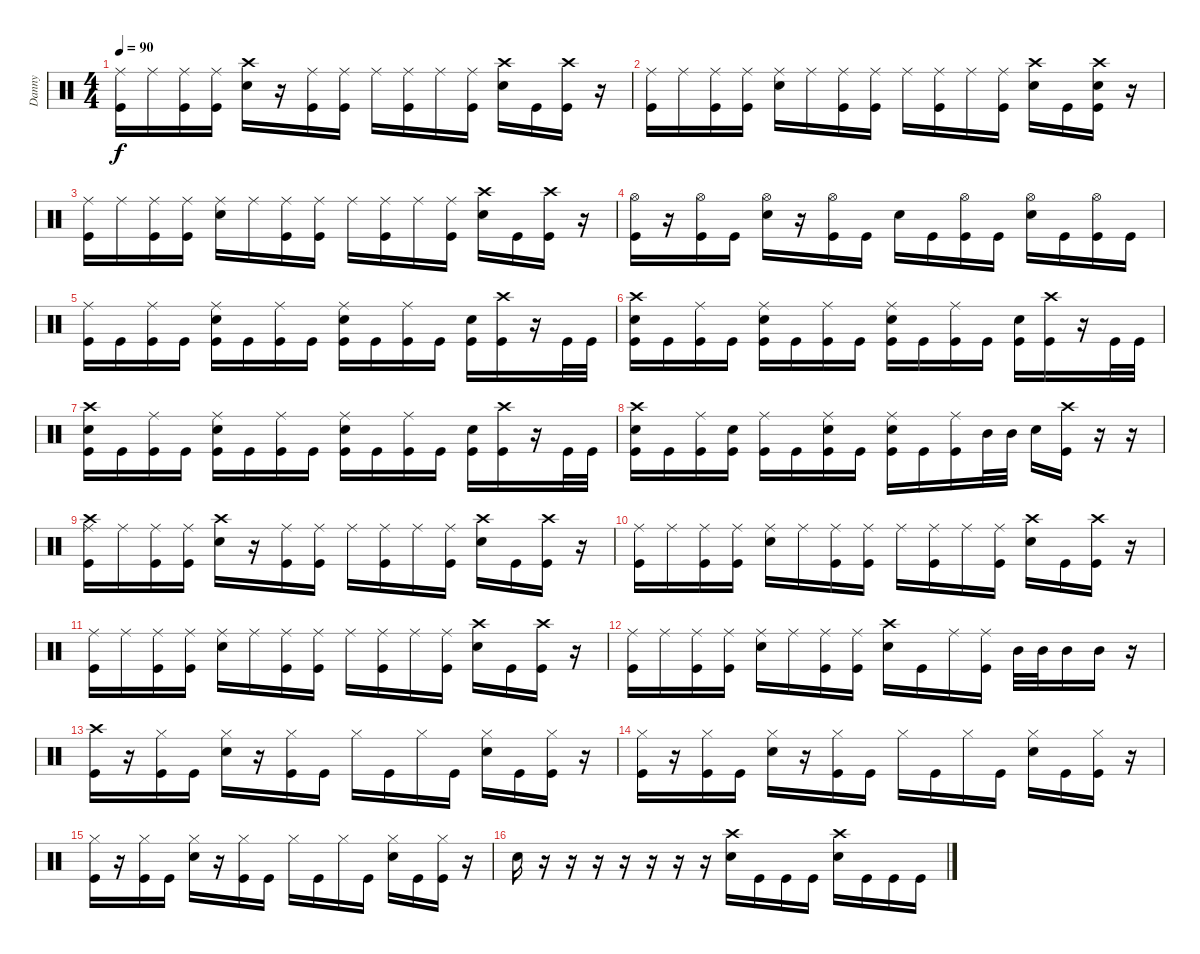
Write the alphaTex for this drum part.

\track ("Danny" "Danny") {instrument percussion}
\staff {score}
\articulation defaults
\ts (4 4)
\tempo 90
\clef neutral
\ks c
("Ride (middle)" "Kick (hit)").16{dy f} "Ride (middle)".16 ("Ride (middle)" "Kick (hit)").16 ("Ride (middle)" "Kick (hit)").16 ("Crash high (hit)" "Electric Snare (hit)").16 r.16 ("Ride (middle)" "Kick (hit)").16 ("Ride (middle)" "Kick (hit)").16 "Ride (middle)".16 ("Ride (middle)" "Kick (hit)").16 "Ride (middle)".16 ("Ride (middle)" "Kick (hit)").16 ("Crash high (hit)" "Electric Snare (hit)").16 "Kick (hit)".16 ("Crash high (hit)" "Kick (hit)").16 r.16 |
("Ride (middle)" "Kick (hit)").16 "Ride (middle)".16 ("Ride (middle)" "Kick (hit)").16 ("Ride (middle)" "Kick (hit)").16 ("Ride (middle)" "Electric Snare (hit)").16 "Ride (middle)".16 ("Ride (middle)" "Kick (hit)").16 ("Ride (middle)" "Kick (hit)").16 "Ride (middle)".16 ("Ride (middle)" "Kick (hit)").16 "Ride (middle)".16 ("Ride (middle)" "Kick (hit)").16 ("Crash high (hit)" "Electric Snare (hit)").16 "Kick (hit)".16 ("Crash high (hit)" "Electric Snare (hit)" "Kick (hit)").16 r.16 |
("Ride (middle)" "Kick (hit)").16 "Ride (middle)".16 ("Ride (middle)" "Kick (hit)").16 ("Ride (middle)" "Kick (hit)").16 ("Ride (middle)" "Electric Snare (hit)").16 "Ride (middle)".16 ("Ride (middle)" "Kick (hit)").16 ("Ride (middle)" "Kick (hit)").16 "Ride (middle)".16 ("Ride (middle)" "Kick (hit)").16 "Ride (middle)".16 ("Ride (middle)" "Kick (hit)").16 ("Crash high (hit)" "Electric Snare (hit)").16 "Kick (hit)".16 ("Crash high (hit)" "Kick (hit)").16 r.16 |
("Hi-Hat (open)" "Kick (hit)").16 r.16 ("Hi-Hat (open)" "Kick (hit)").16 "Kick (hit)".16 ("Hi-Hat (open)" "Electric Snare (hit)").16 r.16 ("Hi-Hat (open)" "Kick (hit)").16 "Kick (hit)".16 "Electric Snare (hit)".16 "Kick (hit)".16 ("Hi-Hat (open)" "Kick (hit)").16 "Kick (hit)".16 ("Hi-Hat (open)" "Electric Snare (hit)").16 "Kick (hit)".16 ("Hi-Hat (open)" "Kick (hit)").16 "Kick (hit)".16 |
("Ride (middle)" "Kick (hit)").16 "Kick (hit)".16 ("Ride (middle)" "Kick (hit)").16 "Kick (hit)".16 ("Ride (middle)" "Electric Snare (hit)" "Kick (hit)").16 "Kick (hit)".16 ("Ride (middle)" "Kick (hit)").16 "Kick (hit)".16 ("Ride (middle)" "Electric Snare (hit)" "Kick (hit)").16 "Kick (hit)".16 ("Ride (middle)" "Kick (hit)").16 "Kick (hit)".16 ("Electric Snare (hit)" "Kick (hit)").16 ("Crash high (hit)" "Kick (hit)").16 r.16 "Kick (hit)".32 "Kick (hit)".32 |
("Crash high (hit)" "Electric Snare (hit)" "Kick (hit)").16 "Kick (hit)".16 ("Ride (middle)" "Kick (hit)").16 "Kick (hit)".16 ("Ride (middle)" "Electric Snare (hit)" "Kick (hit)").16 "Kick (hit)".16 ("Ride (middle)" "Kick (hit)").16 "Kick (hit)".16 ("Ride (middle)" "Electric Snare (hit)" "Kick (hit)").16 "Kick (hit)".16 ("Ride (middle)" "Kick (hit)").16 "Kick (hit)".16 ("Electric Snare (hit)" "Kick (hit)").16 ("Crash high (hit)" "Kick (hit)").16 r.16 "Kick (hit)".32 "Kick (hit)".32 |
("Crash high (hit)" "Electric Snare (hit)" "Kick (hit)").16 "Kick (hit)".16 ("Ride (middle)" "Kick (hit)").16 "Kick (hit)".16 ("Ride (middle)" "Electric Snare (hit)" "Kick (hit)").16 "Kick (hit)".16 ("Ride (middle)" "Kick (hit)").16 "Kick (hit)".16 ("Ride (middle)" "Electric Snare (hit)" "Kick (hit)").16 "Kick (hit)".16 ("Ride (middle)" "Kick (hit)").16 "Kick (hit)".16 ("Electric Snare (hit)" "Kick (hit)").16 ("Crash high (hit)" "Kick (hit)").16 r.16 "Kick (hit)".32 "Kick (hit)".32 |
("Crash high (hit)" "Electric Snare (hit)" "Kick (hit)").16 "Kick (hit)".16 ("Ride (middle)" "Kick (hit)").16 ("Electric Snare (hit)" "Kick (hit)").16 ("Ride (middle)" "Kick (hit)").16 "Kick (hit)".16 ("Ride (middle)" "Electric Snare (hit)" "Kick (hit)").16 "Kick (hit)".16 ("Ride (middle)" "Electric Snare (hit)" "Kick (hit)").16 "Kick (hit)".16 ("Ride (middle)" "Kick (hit)").16 "Mid Tom (hit)".32 "Mid Tom (hit)".32 "Electric Snare (hit)".16 ("Crash high (hit)" "Kick (hit)").16 r.16 r.16 |
("Crash high (hit)" "Ride (middle)" "Kick (hit)").16 "Ride (middle)".16 ("Ride (middle)" "Kick (hit)").16 ("Ride (middle)" "Kick (hit)").16 ("Crash high (hit)" "Electric Snare (hit)").16 r.16 ("Ride (middle)" "Kick (hit)").16 ("Ride (middle)" "Kick (hit)").16 "Ride (middle)".16 ("Ride (middle)" "Kick (hit)").16 "Ride (middle)".16 ("Ride (middle)" "Kick (hit)").16 ("Crash high (hit)" "Electric Snare (hit)").16 "Kick (hit)".16 ("Crash high (hit)" "Kick (hit)").16 r.16 |
("Ride (middle)" "Kick (hit)").16 "Ride (middle)".16 ("Ride (middle)" "Kick (hit)").16 ("Ride (middle)" "Kick (hit)").16 ("Ride (middle)" "Electric Snare (hit)").16 "Ride (middle)".16 ("Ride (middle)" "Kick (hit)").16 ("Ride (middle)" "Kick (hit)").16 "Ride (middle)".16 ("Ride (middle)" "Kick (hit)").16 "Ride (middle)".16 ("Ride (middle)" "Kick (hit)").16 ("Crash high (hit)" "Electric Snare (hit)").16 "Kick (hit)".16 ("Crash high (hit)" "Kick (hit)").16 r.16 |
("Ride (middle)" "Kick (hit)").16 "Ride (middle)".16 ("Ride (middle)" "Kick (hit)").16 ("Ride (middle)" "Kick (hit)").16 ("Ride (middle)" "Electric Snare (hit)").16 "Ride (middle)".16 ("Ride (middle)" "Kick (hit)").16 ("Ride (middle)" "Kick (hit)").16 "Ride (middle)".16 ("Ride (middle)" "Kick (hit)").16 "Ride (middle)".16 ("Ride (middle)" "Kick (hit)").16 ("Crash high (hit)" "Electric Snare (hit)").16 "Kick (hit)".16 ("Crash high (hit)" "Kick (hit)").16 r.16 |
("Ride (middle)" "Kick (hit)").16 "Ride (middle)".16 ("Ride (middle)" "Kick (hit)").16 ("Ride (middle)" "Kick (hit)").16 ("Ride (middle)" "Electric Snare (hit)").16 "Ride (middle)".16 ("Ride (middle)" "Kick (hit)").16 ("Ride (middle)" "Kick (hit)").16 ("Crash high (hit)" "Electric Snare (hit)").16 "Kick (hit)".16 "Ride (middle)".16 ("Ride (middle)" "Kick (hit)").16 "Mid Tom (hit)".32 "Mid Tom (hit)".32 "Mid Tom (hit)".16 "Mid Tom (hit)".16 r.16 |
("Crash high (hit)" "Kick (hit)").16 r.16 ("Hi-Hat (closed)" "Kick (hit)").16 "Kick (hit)".16 ("Hi-Hat (closed)" "Electric Snare (hit)").16 r.16 ("Hi-Hat (closed)" "Kick (hit)").16 "Kick (hit)".16 "Hi-Hat (closed)".16 "Kick (hit)".16 "Hi-Hat (closed)".16 "Kick (hit)".16 ("Hi-Hat (closed)" "Electric Snare (hit)").16 "Kick (hit)".16 ("Hi-Hat (closed)" "Kick (hit)").16 r.16 |
("Hi-Hat (closed)" "Kick (hit)").16 r.16 ("Hi-Hat (closed)" "Kick (hit)").16 "Kick (hit)".16 ("Hi-Hat (closed)" "Electric Snare (hit)").16 r.16 ("Hi-Hat (closed)" "Kick (hit)").16 "Kick (hit)".16 "Hi-Hat (closed)".16 "Kick (hit)".16 "Hi-Hat (closed)".16 "Kick (hit)".16 ("Hi-Hat (closed)" "Electric Snare (hit)").16 "Kick (hit)".16 ("Hi-Hat (closed)" "Kick (hit)").16 r.16 |
("Hi-Hat (closed)" "Kick (hit)").16 r.16 ("Hi-Hat (closed)" "Kick (hit)").16 "Kick (hit)".16 ("Hi-Hat (closed)" "Electric Snare (hit)").16 r.16 ("Hi-Hat (closed)" "Kick (hit)").16 "Kick (hit)".16 "Hi-Hat (closed)".16 "Kick (hit)".16 "Hi-Hat (closed)".16 "Kick (hit)".16 ("Hi-Hat (closed)" "Electric Snare (hit)").16 "Kick (hit)".16 ("Hi-Hat (closed)" "Kick (hit)").16 r.16 |
"Electric Snare (hit)".16 r.16 r.16 r.16 r.16 r.16 r.16 r.16 ("Crash high (hit)" "Electric Snare (hit)").16 "Kick (hit)".16 "Kick (hit)".16 "Kick (hit)".16 ("Crash high (hit)" "Electric Snare (hit)").16 "Kick (hit)".16 "Kick (hit)".16 "Kick (hit)".16
